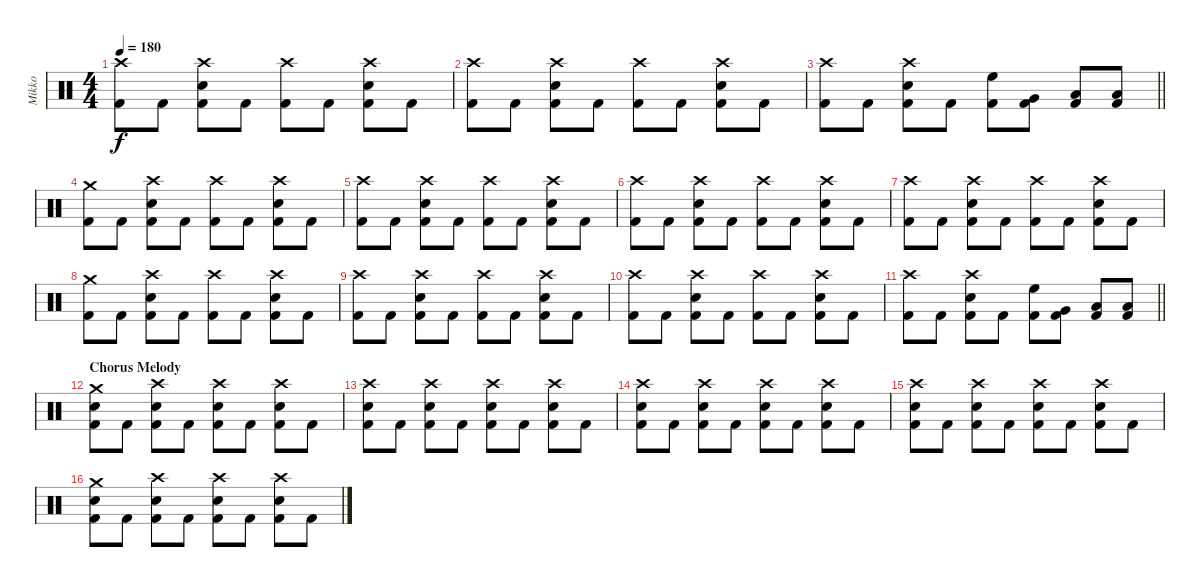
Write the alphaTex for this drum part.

\track ("Mikko" "Mikko") {instrument percussion}
\staff {score}
\articulation defaults
\ts (4 4)
\tempo 180
\clef neutral
\ks c
("Crash high (hit)" "Kick (hit) 2").8{dy f} "Kick (hit) 2".8 ("Crash high (hit)" "Electric Snare (hit)" "Kick (hit) 2").8 "Kick (hit) 2".8 ("Crash high (hit)" "Kick (hit) 2").8 "Kick (hit) 2".8 ("Crash high (hit)" "Electric Snare (hit)" "Kick (hit) 2").8 "Kick (hit) 2".8 |
("Crash high (hit)" "Kick (hit) 2").8 "Kick (hit) 2".8 ("Crash high (hit)" "Electric Snare (hit)" "Kick (hit) 2").8 "Kick (hit) 2".8 ("Crash high (hit)" "Kick (hit) 2").8 "Kick (hit) 2".8 ("Crash high (hit)" "Electric Snare (hit)" "Kick (hit) 2").8 "Kick (hit) 2".8 |
\barLineRight lightlight
("Crash high (hit)" "Kick (hit) 2").8 "Kick (hit) 2".8 ("Crash high (hit)" "Electric Snare (hit)" "Kick (hit) 2").8 "Kick (hit) 2".8 ("High Floor Tom (hit)" "Kick (hit) 2").8 ("Very Low Tom (hit)" "Kick (hit) 2").8 ("Low Floor Tom (hit)" "Kick (hit) 2").8 ("Low Tom (hit)" "Kick (hit) 2").8 |
("Crash medium (hit)" "Kick (hit) 2").8 "Kick (hit) 2".8 ("Crash high (hit)" "Electric Snare (hit)" "Kick (hit) 2").8 "Kick (hit) 2".8 ("Crash high (hit)" "Kick (hit) 2").8 "Kick (hit) 2".8 ("Crash high (hit)" "Electric Snare (hit)" "Kick (hit) 2").8 "Kick (hit) 2".8 |
("Crash high (hit)" "Kick (hit) 2").8 "Kick (hit) 2".8 ("Crash high (hit)" "Electric Snare (hit)" "Kick (hit) 2").8 "Kick (hit) 2".8 ("Crash high (hit)" "Kick (hit) 2").8 "Kick (hit) 2".8 ("Crash high (hit)" "Electric Snare (hit)" "Kick (hit) 2").8 "Kick (hit) 2".8 |
("Crash high (hit)" "Kick (hit) 2").8 "Kick (hit) 2".8 ("Crash high (hit)" "Electric Snare (hit)" "Kick (hit) 2").8 "Kick (hit) 2".8 ("Crash high (hit)" "Kick (hit) 2").8 "Kick (hit) 2".8 ("Crash high (hit)" "Electric Snare (hit)" "Kick (hit) 2").8 "Kick (hit) 2".8 |
("Crash high (hit)" "Kick (hit) 2").8 "Kick (hit) 2".8 ("Crash high (hit)" "Electric Snare (hit)" "Kick (hit) 2").8 "Kick (hit) 2".8 ("Crash high (hit)" "Kick (hit) 2").8 "Kick (hit) 2".8 ("Crash high (hit)" "Electric Snare (hit)" "Kick (hit) 2").8 "Kick (hit) 2".8 |
("Crash medium (hit)" "Kick (hit) 2").8 "Kick (hit) 2".8 ("Crash high (hit)" "Electric Snare (hit)" "Kick (hit) 2").8 "Kick (hit) 2".8 ("Crash high (hit)" "Kick (hit) 2").8 "Kick (hit) 2".8 ("Crash high (hit)" "Electric Snare (hit)" "Kick (hit) 2").8 "Kick (hit) 2".8 |
("Crash high (hit)" "Kick (hit) 2").8 "Kick (hit) 2".8 ("Crash high (hit)" "Electric Snare (hit)" "Kick (hit) 2").8 "Kick (hit) 2".8 ("Crash high (hit)" "Kick (hit) 2").8 "Kick (hit) 2".8 ("Crash high (hit)" "Electric Snare (hit)" "Kick (hit) 2").8 "Kick (hit) 2".8 |
("Crash high (hit)" "Kick (hit) 2").8 "Kick (hit) 2".8 ("Crash high (hit)" "Electric Snare (hit)" "Kick (hit) 2").8 "Kick (hit) 2".8 ("Crash high (hit)" "Kick (hit) 2").8 "Kick (hit) 2".8 ("Crash high (hit)" "Electric Snare (hit)" "Kick (hit) 2").8 "Kick (hit) 2".8 |
\barLineRight lightlight
("Crash high (hit)" "Kick (hit) 2").8 "Kick (hit) 2".8 ("Crash high (hit)" "Electric Snare (hit)" "Kick (hit) 2").8 "Kick (hit) 2".8 ("High Floor Tom (hit)" "Kick (hit) 2").8 ("Very Low Tom (hit)" "Kick (hit) 2").8 ("Low Floor Tom (hit)" "Kick (hit) 2").8 ("Low Tom (hit)" "Kick (hit) 2").8 |
\section ("" "Chorus Melody")
("Crash medium (hit)" "Electric Snare (hit)" "Kick (hit) 2").8 "Kick (hit) 2".8 ("Crash high (hit)" "Electric Snare (hit)" "Kick (hit) 2").8 "Kick (hit) 2".8 ("Crash high (hit)" "Electric Snare (hit)" "Kick (hit) 2").8 "Kick (hit) 2".8 ("Crash high (hit)" "Electric Snare (hit)" "Kick (hit) 2").8 "Kick (hit) 2".8 |
("Crash high (hit)" "Electric Snare (hit)" "Kick (hit) 2").8 "Kick (hit) 2".8 ("Crash high (hit)" "Electric Snare (hit)" "Kick (hit) 2").8 "Kick (hit) 2".8 ("Crash high (hit)" "Electric Snare (hit)" "Kick (hit) 2").8 "Kick (hit) 2".8 ("Crash high (hit)" "Electric Snare (hit)" "Kick (hit) 2").8 "Kick (hit) 2".8 |
("Crash high (hit)" "Electric Snare (hit)" "Kick (hit) 2").8 "Kick (hit) 2".8 ("Crash high (hit)" "Electric Snare (hit)" "Kick (hit) 2").8 "Kick (hit) 2".8 ("Crash high (hit)" "Electric Snare (hit)" "Kick (hit) 2").8 "Kick (hit) 2".8 ("Crash high (hit)" "Electric Snare (hit)" "Kick (hit) 2").8 "Kick (hit) 2".8 |
("Crash high (hit)" "Electric Snare (hit)" "Kick (hit) 2").8 "Kick (hit) 2".8 ("Crash high (hit)" "Electric Snare (hit)" "Kick (hit) 2").8 "Kick (hit) 2".8 ("Crash high (hit)" "Electric Snare (hit)" "Kick (hit) 2").8 "Kick (hit) 2".8 ("Crash high (hit)" "Electric Snare (hit)" "Kick (hit) 2").8 "Kick (hit) 2".8 |
("Crash medium (hit)" "Electric Snare (hit)" "Kick (hit) 2").8 "Kick (hit) 2".8 ("Crash high (hit)" "Electric Snare (hit)" "Kick (hit) 2").8 "Kick (hit) 2".8 ("Crash high (hit)" "Electric Snare (hit)" "Kick (hit) 2").8 "Kick (hit) 2".8 ("Crash high (hit)" "Electric Snare (hit)" "Kick (hit) 2").8 "Kick (hit) 2".8
